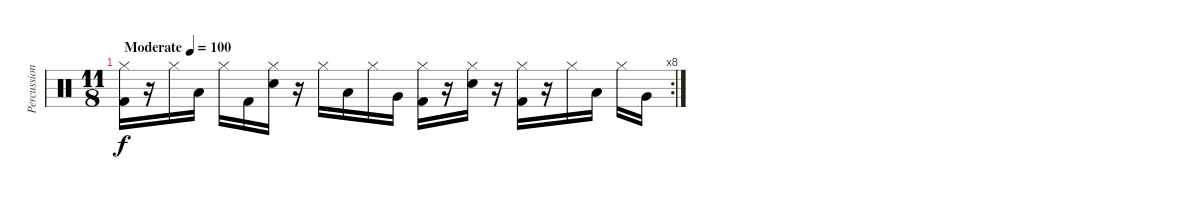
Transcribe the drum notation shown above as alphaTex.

\track ("Percussion" "Percussion") {instrument percussion}
\staff {score}
\articulation defaults
\rc 8
\ts (11 8)
\tempo (100 "Moderate")
\clef neutral
\ks c
("Hi-Hat (closed)" "Kick (hit) 2").16{dy f} r.16 "Hi-Hat (closed)".16 "Low Tom (hit)".16 "Hi-Hat (closed)".16 "Kick (hit) 2".16 ("Hi-Hat (closed)" "Snare (hit) 2").16 r.16 "Hi-Hat (closed)".16 "Low Tom (hit)".16 "Hi-Hat (closed)".16 "Very Low Tom (hit)".16 ("Hi-Hat (closed)" "Kick (hit) 2").16 r.16 ("Hi-Hat (closed)" "Snare (hit) 2").16 r.16 ("Hi-Hat (closed)" "Kick (hit) 2").16 r.16 "Hi-Hat (closed)".16 "Low Tom (hit)".16 "Hi-Hat (closed)".16 "Very Low Tom (hit)".16
